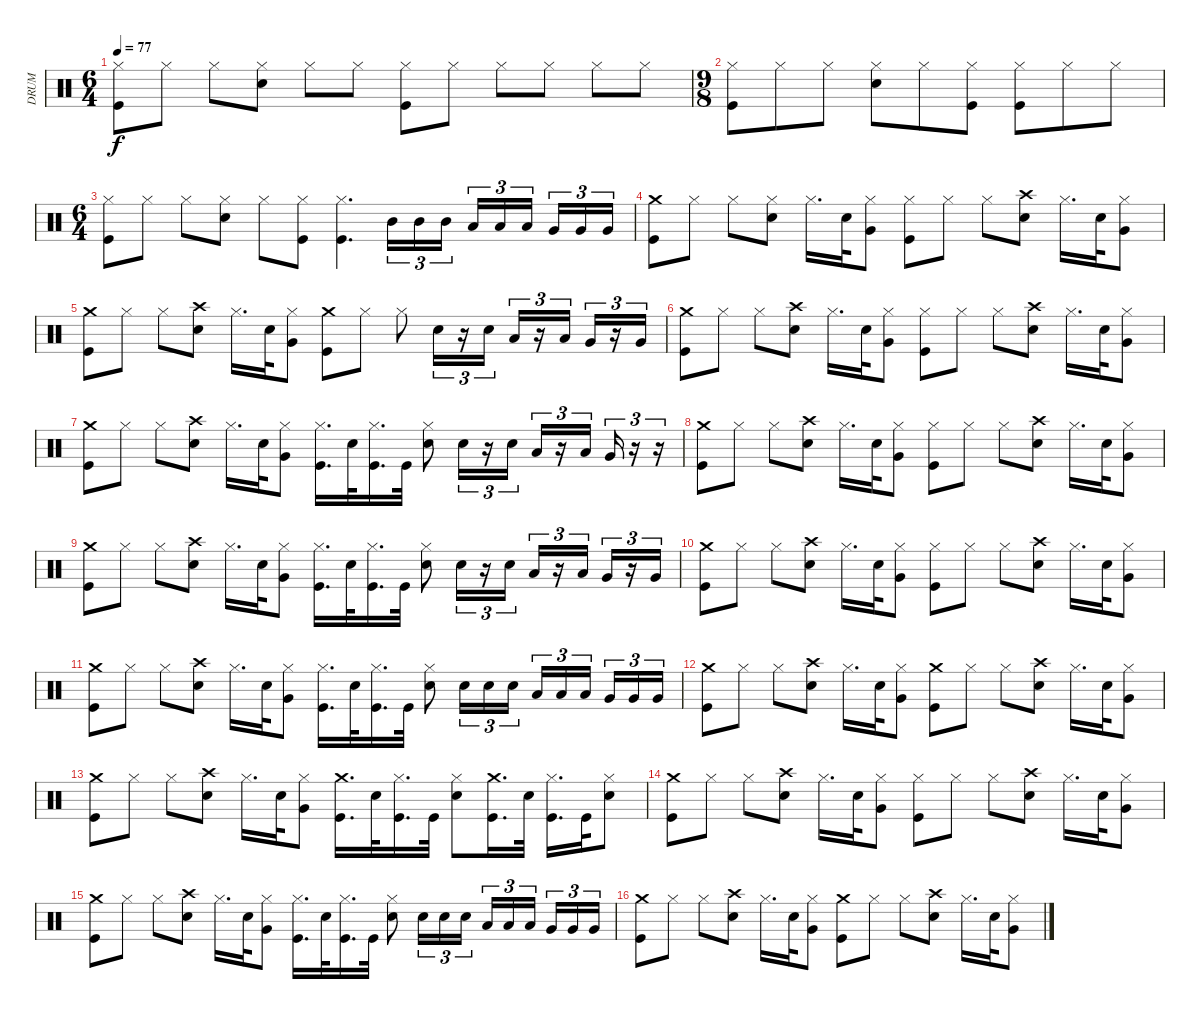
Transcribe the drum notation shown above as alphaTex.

\track ("DRUM" "DRUM") {instrument percussion}
\staff {score}
\articulation defaults
\ts (6 4)
\tempo 77
\clef neutral
\ks c
("Hi-Hat (closed)" "Kick (hit)").8{dy f} "Hi-Hat (closed)".8 "Hi-Hat (closed)".8 ("Hi-Hat (closed)" "Snare (hit) 2").8 "Hi-Hat (closed)".8 "Hi-Hat (closed)".8 ("Hi-Hat (closed)" "Kick (hit)").8 "Hi-Hat (closed)".8 "Hi-Hat (closed)".8 "Hi-Hat (closed)".8 "Hi-Hat (closed)".8 "Hi-Hat (closed)".8 |
\ts (9 8)
("Hi-Hat (closed)" "Kick (hit)").8 "Hi-Hat (closed)".8 "Hi-Hat (closed)".8 ("Hi-Hat (closed)" "Snare (hit) 2").8 "Hi-Hat (closed)".8 ("Hi-Hat (closed)" "Kick (hit)").8 ("Hi-Hat (closed)" "Kick (hit)").8 "Hi-Hat (closed)".8 "Hi-Hat (closed)".8 |
\ts (6 4)
("Hi-Hat (closed)" "Kick (hit)").8 "Hi-Hat (closed)".8 "Hi-Hat (closed)".8 ("Hi-Hat (closed)" "Snare (hit) 2").8 "Hi-Hat (closed)".8 ("Hi-Hat (closed)" "Kick (hit)").8 ("Hi-Hat (closed)" "Kick (hit)").4{d} "Mid Tom (hit)".16{tu (3 2)} "Mid Tom (hit)".16{tu (3 2)} "Mid Tom (hit)".16{tu (3 2) beam splitsecondary} "Low Tom (hit)".16{tu (3 2)} "Low Tom (hit)".16{tu (3 2)} "Low Tom (hit)".16{tu (3 2) beam splitsecondary} "Very Low Tom (hit)".16{tu (3 2)} "Very Low Tom (hit)".16{tu (3 2)} "Very Low Tom (hit)".16{tu (3 2)} |
("Crash medium (hit)" "Kick (hit)").8 "Hi-Hat (closed)".8 "Hi-Hat (closed)".8 ("Hi-Hat (closed)" "Snare (hit) 2").8 "Hi-Hat (closed)".16{d} "Snare (hit) 2".32 ("Hi-Hat (closed)" "Very Low Tom (hit)").8 ("Hi-Hat (closed)" "Kick (hit)").8 "Hi-Hat (closed)".8 "Hi-Hat (closed)".8 ("Crash high (hit)" "Snare (hit) 2").8 "Hi-Hat (closed)".16{d} "Snare (hit) 2".32 ("Hi-Hat (closed)" "Very Low Tom (hit)").8 |
("Crash medium (hit)" "Kick (hit)").8 "Hi-Hat (closed)".8 "Hi-Hat (closed)".8 ("Crash high (hit)" "Snare (hit) 2").8 "Hi-Hat (closed)".16{d} "Snare (hit) 2".32 ("Hi-Hat (closed)" "Very Low Tom (hit)").8 ("Crash medium (hit)" "Kick (hit)").8 "Hi-Hat (closed)".8 "Hi-Hat (closed)".8 "Snare (hit) 2".16{tu (3 2)} r.16{tu (3 2)} "Snare (hit) 2".16{tu (3 2)} "Low Tom (hit)".16{tu (3 2)} r.16{tu (3 2)} "Low Tom (hit)".16{tu (3 2)} "Very Low Tom (hit)".16{tu (3 2)} r.16{tu (3 2)} "Very Low Tom (hit)".16{tu (3 2)} |
("Crash medium (hit)" "Kick (hit)").8 "Hi-Hat (closed)".8 "Hi-Hat (closed)".8 ("Crash high (hit)" "Snare (hit) 2").8 "Hi-Hat (closed)".16{d} "Snare (hit) 2".32 ("Hi-Hat (closed)" "Very Low Tom (hit)").8 ("Hi-Hat (closed)" "Kick (hit)").8 "Hi-Hat (closed)".8 "Hi-Hat (closed)".8 ("Crash high (hit)" "Snare (hit) 2").8 "Hi-Hat (closed)".16{d} "Snare (hit) 2".32 ("Hi-Hat (closed)" "Very Low Tom (hit)").8 |
("Crash medium (hit)" "Kick (hit)").8 "Hi-Hat (closed)".8 "Hi-Hat (closed)".8 ("Crash high (hit)" "Snare (hit) 2").8 "Hi-Hat (closed)".16{d} "Snare (hit) 2".32 ("Hi-Hat (closed)" "Very Low Tom (hit)").8 ("Hi-Hat (closed)" "Kick (hit)").16{d} "Snare (hit) 2".32 ("Hi-Hat (closed)" "Kick (hit)").16{d} "Kick (hit)".32 ("Hi-Hat (closed)" "Snare (hit) 2").8 "Snare (hit) 2".16{tu (3 2)} r.16{tu (3 2)} "Snare (hit) 2".16{tu (3 2)} "Low Tom (hit)".16{tu (3 2)} r.16{tu (3 2)} "Low Tom (hit)".16{tu (3 2)} "Very Low Tom (hit)".16{tu (3 2)} r.16{tu (3 2)} r.16{tu (3 2)} |
("Crash medium (hit)" "Kick (hit)").8 "Hi-Hat (closed)".8 "Hi-Hat (closed)".8 ("Crash high (hit)" "Snare (hit) 2").8 "Hi-Hat (closed)".16{d} "Snare (hit) 2".32 ("Hi-Hat (closed)" "Very Low Tom (hit)").8 ("Hi-Hat (closed)" "Kick (hit)").8 "Hi-Hat (closed)".8 "Hi-Hat (closed)".8 ("Crash high (hit)" "Snare (hit) 2").8 "Hi-Hat (closed)".16{d} "Snare (hit) 2".32 ("Hi-Hat (closed)" "Very Low Tom (hit)").8 |
("Crash medium (hit)" "Kick (hit)").8 "Hi-Hat (closed)".8 "Hi-Hat (closed)".8 ("Crash high (hit)" "Snare (hit) 2").8 "Hi-Hat (closed)".16{d} "Snare (hit) 2".32 ("Hi-Hat (closed)" "Very Low Tom (hit)").8 ("Hi-Hat (closed)" "Kick (hit)").16{d} "Snare (hit) 2".32 ("Hi-Hat (closed)" "Kick (hit)").16{d} "Kick (hit)".32 ("Hi-Hat (closed)" "Snare (hit) 2").8 "Snare (hit) 2".16{tu (3 2)} r.16{tu (3 2)} "Snare (hit) 2".16{tu (3 2)} "Low Tom (hit)".16{tu (3 2)} r.16{tu (3 2)} "Low Tom (hit)".16{tu (3 2)} "Very Low Tom (hit)".16{tu (3 2)} r.16{tu (3 2)} "Very Low Tom (hit)".16{tu (3 2)} |
("Crash medium (hit)" "Kick (hit)").8 "Hi-Hat (closed)".8 "Hi-Hat (closed)".8 ("Crash high (hit)" "Snare (hit) 2").8 "Hi-Hat (closed)".16{d} "Snare (hit) 2".32 ("Hi-Hat (closed)" "Very Low Tom (hit)").8 ("Hi-Hat (closed)" "Kick (hit)").8 "Hi-Hat (closed)".8 "Hi-Hat (closed)".8 ("Crash high (hit)" "Snare (hit) 2").8 "Hi-Hat (closed)".16{d} "Snare (hit) 2".32 ("Hi-Hat (closed)" "Very Low Tom (hit)").8 |
("Crash medium (hit)" "Kick (hit)").8 "Hi-Hat (closed)".8 "Hi-Hat (closed)".8 ("Crash high (hit)" "Snare (hit) 2").8 "Hi-Hat (closed)".16{d} "Snare (hit) 2".32 ("Hi-Hat (closed)" "Very Low Tom (hit)").8 ("Hi-Hat (closed)" "Kick (hit)").16{d} "Snare (hit) 2".32 ("Hi-Hat (closed)" "Kick (hit)").16{d} "Kick (hit)".32 ("Hi-Hat (closed)" "Snare (hit) 2").8 "Snare (hit) 2".16{tu (3 2)} "Snare (hit) 2".16{tu (3 2)} "Snare (hit) 2".16{tu (3 2) beam splitsecondary} "Low Tom (hit)".16{tu (3 2)} "Low Tom (hit)".16{tu (3 2)} "Low Tom (hit)".16{tu (3 2) beam splitsecondary} "Very Low Tom (hit)".16{tu (3 2)} "Very Low Tom (hit)".16{tu (3 2)} "Very Low Tom (hit)".16{tu (3 2)} |
("Crash medium (hit)" "Kick (hit)").8 "Hi-Hat (closed)".8 "Hi-Hat (closed)".8 ("Crash high (hit)" "Snare (hit) 2").8 "Hi-Hat (closed)".16{d} "Snare (hit) 2".32 ("Hi-Hat (closed)" "Very Low Tom (hit)").8 ("Crash medium (hit)" "Kick (hit)").8 "Hi-Hat (closed)".8 "Hi-Hat (closed)".8 ("Crash high (hit)" "Snare (hit) 2").8 "Hi-Hat (closed)".16{d} "Snare (hit) 2".32 ("Hi-Hat (closed)" "Very Low Tom (hit)").8 |
("Crash medium (hit)" "Kick (hit)").8 "Hi-Hat (closed)".8 "Hi-Hat (closed)".8 ("Crash high (hit)" "Snare (hit) 2").8 "Hi-Hat (closed)".16{d} "Snare (hit) 2".32 ("Hi-Hat (closed)" "Very Low Tom (hit)").8 ("Crash medium (hit)" "Kick (hit)").16{d} "Snare (hit) 2".32 ("Hi-Hat (closed)" "Kick (hit)").16{d} "Kick (hit)".32 ("Hi-Hat (closed)" "Snare (hit) 2").8 ("Crash medium (hit)" "Kick (hit)").16{d} "Snare (hit) 2".32 ("Hi-Hat (closed)" "Kick (hit)").16{d} "Kick (hit)".32 ("Hi-Hat (closed)" "Snare (hit) 2").8 |
("Crash medium (hit)" "Kick (hit)").8 "Hi-Hat (closed)".8 "Hi-Hat (closed)".8 ("Crash high (hit)" "Snare (hit) 2").8 "Hi-Hat (closed)".16{d} "Snare (hit) 2".32 ("Hi-Hat (closed)" "Very Low Tom (hit)").8 ("Hi-Hat (closed)" "Kick (hit)").8 "Hi-Hat (closed)".8 "Hi-Hat (closed)".8 ("Crash high (hit)" "Snare (hit) 2").8 "Hi-Hat (closed)".16{d} "Snare (hit) 2".32 ("Hi-Hat (closed)" "Very Low Tom (hit)").8 |
("Crash medium (hit)" "Kick (hit)").8 "Hi-Hat (closed)".8 "Hi-Hat (closed)".8 ("Crash high (hit)" "Snare (hit) 2").8 "Hi-Hat (closed)".16{d} "Snare (hit) 2".32 ("Hi-Hat (closed)" "Very Low Tom (hit)").8 ("Hi-Hat (closed)" "Kick (hit)").16{d} "Snare (hit) 2".32 ("Hi-Hat (closed)" "Kick (hit)").16{d} "Kick (hit)".32 ("Hi-Hat (closed)" "Snare (hit) 2").8 "Snare (hit) 2".16{tu (3 2)} "Snare (hit) 2".16{tu (3 2)} "Snare (hit) 2".16{tu (3 2) beam splitsecondary} "Low Tom (hit)".16{tu (3 2)} "Low Tom (hit)".16{tu (3 2)} "Low Tom (hit)".16{tu (3 2) beam splitsecondary} "Very Low Tom (hit)".16{tu (3 2)} "Very Low Tom (hit)".16{tu (3 2)} "Very Low Tom (hit)".16{tu (3 2)} |
("Crash medium (hit)" "Kick (hit)").8 "Hi-Hat (closed)".8 "Hi-Hat (closed)".8 ("Crash high (hit)" "Snare (hit) 2").8 "Hi-Hat (closed)".16{d} "Snare (hit) 2".32 ("Hi-Hat (closed)" "Very Low Tom (hit)").8 ("Crash medium (hit)" "Kick (hit)").8 "Hi-Hat (closed)".8 "Hi-Hat (closed)".8 ("Crash high (hit)" "Snare (hit) 2").8 "Hi-Hat (closed)".16{d} "Snare (hit) 2".32 ("Hi-Hat (closed)" "Very Low Tom (hit)").8
